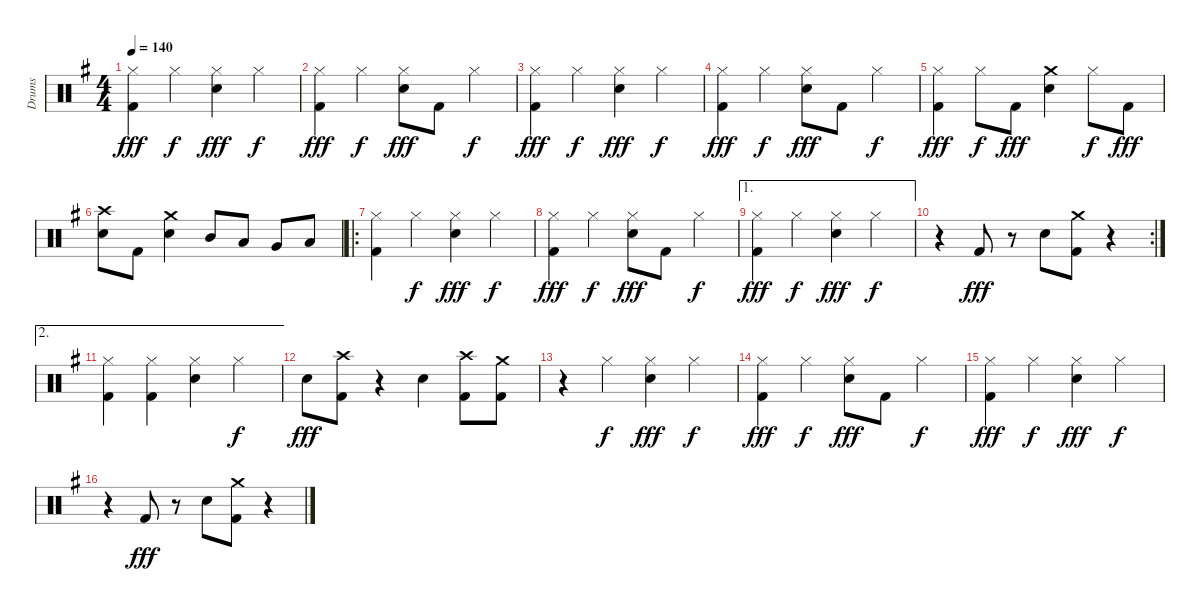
\track ("Drums" "Drums") {instrument percussion}
\staff {score}
\articulation defaults
\ts (4 4)
\tempo 140
\clef neutral
\ks eminor
("Hi-Hat (closed)" "Kick (hit) 2").4{dy fff} "Hi-Hat (closed)".4{dy f} ("Electric Snare (hit)" "Hi-Hat (closed)").4{dy fff} "Hi-Hat (closed)".4{dy f} |
("Hi-Hat (closed)" "Kick (hit) 2").4{dy fff} "Hi-Hat (closed)".4{dy f} ("Electric Snare (hit)" "Hi-Hat (closed)").8{dy fff} "Kick (hit) 2".8 "Hi-Hat (closed)".4{dy f} |
("Hi-Hat (closed)" "Kick (hit) 2").4{dy fff} "Hi-Hat (closed)".4{dy f} ("Electric Snare (hit)" "Hi-Hat (closed)").4{dy fff} "Hi-Hat (closed)".4{dy f} |
("Hi-Hat (closed)" "Kick (hit) 2").4{dy fff} "Hi-Hat (closed)".4{dy f} ("Electric Snare (hit)" "Hi-Hat (closed)").8{dy fff} "Kick (hit) 2".8 "Hi-Hat (closed)".4{dy f} |
("Hi-Hat (closed)" "Kick (hit) 2").4{dy fff} "Hi-Hat (closed)".8{dy f} "Kick (hit) 2".8{dy fff} ("Electric Snare (hit)" "Crash medium (hit)").4 "Hi-Hat (closed)".8{dy f} "Kick (hit) 2".8{dy fff} |
("Electric Snare (hit)" "Crash high (hit)").8 "Kick (hit) 2".8 ("Electric Snare (hit)" "Crash medium (hit)").4 "Mid Tom (hit)".8 "Low Tom (hit)".8 "Very Low Tom (hit)".8 "Low Floor Tom (hit)".8 |
\ro
("Hi-Hat (closed)" "Kick (hit) 2").4 "Hi-Hat (closed)".4{dy f} ("Electric Snare (hit)" "Hi-Hat (closed)").4{dy fff} "Hi-Hat (closed)".4{dy f} |
("Hi-Hat (closed)" "Kick (hit) 2").4{dy fff} "Hi-Hat (closed)".4{dy f} ("Electric Snare (hit)" "Hi-Hat (closed)").8{dy fff} "Kick (hit) 2".8 "Hi-Hat (closed)".4{dy f} |
\ae 1
("Hi-Hat (closed)" "Kick (hit) 2").4{dy fff} "Hi-Hat (closed)".4{dy f} ("Electric Snare (hit)" "Hi-Hat (closed)").4{dy fff} "Hi-Hat (closed)".4{dy f} |
\rc 2
r.4 "Kick (hit) 2".8{dy fff} r.8 "Electric Snare (hit)".8 ("Crash medium (hit)" "Kick (hit) 2").8 r.4 |
\ae 2
("Hi-Hat (closed)" "Kick (hit) 2").4 ("Hi-Hat (closed)" "Kick (hit) 2").4 ("Electric Snare (hit)" "Hi-Hat (closed)").4 "Hi-Hat (closed)".4{dy f} |
"Electric Snare (hit)".8{dy fff} ("Crash high (hit)" "Kick (hit) 2").8 r.4 "Electric Snare (hit)".4 ("Crash high (hit)" "Kick (hit) 2").8 ("Crash medium (hit)" "Kick (hit) 2").8 |
r.4 "Hi-Hat (closed)".4{dy f} ("Electric Snare (hit)" "Hi-Hat (closed)").4{dy fff} "Hi-Hat (closed)".4{dy f} |
("Hi-Hat (closed)" "Kick (hit) 2").4{dy fff} "Hi-Hat (closed)".4{dy f} ("Electric Snare (hit)" "Hi-Hat (closed)").8{dy fff} "Kick (hit) 2".8 "Hi-Hat (closed)".4{dy f} |
("Hi-Hat (closed)" "Kick (hit) 2").4{dy fff} "Hi-Hat (closed)".4{dy f} ("Electric Snare (hit)" "Hi-Hat (closed)").4{dy fff} "Hi-Hat (closed)".4{dy f} |
r.4 "Kick (hit) 2".8{dy fff} r.8 "Electric Snare (hit)".8 ("Crash medium (hit)" "Kick (hit) 2").8 r.4
